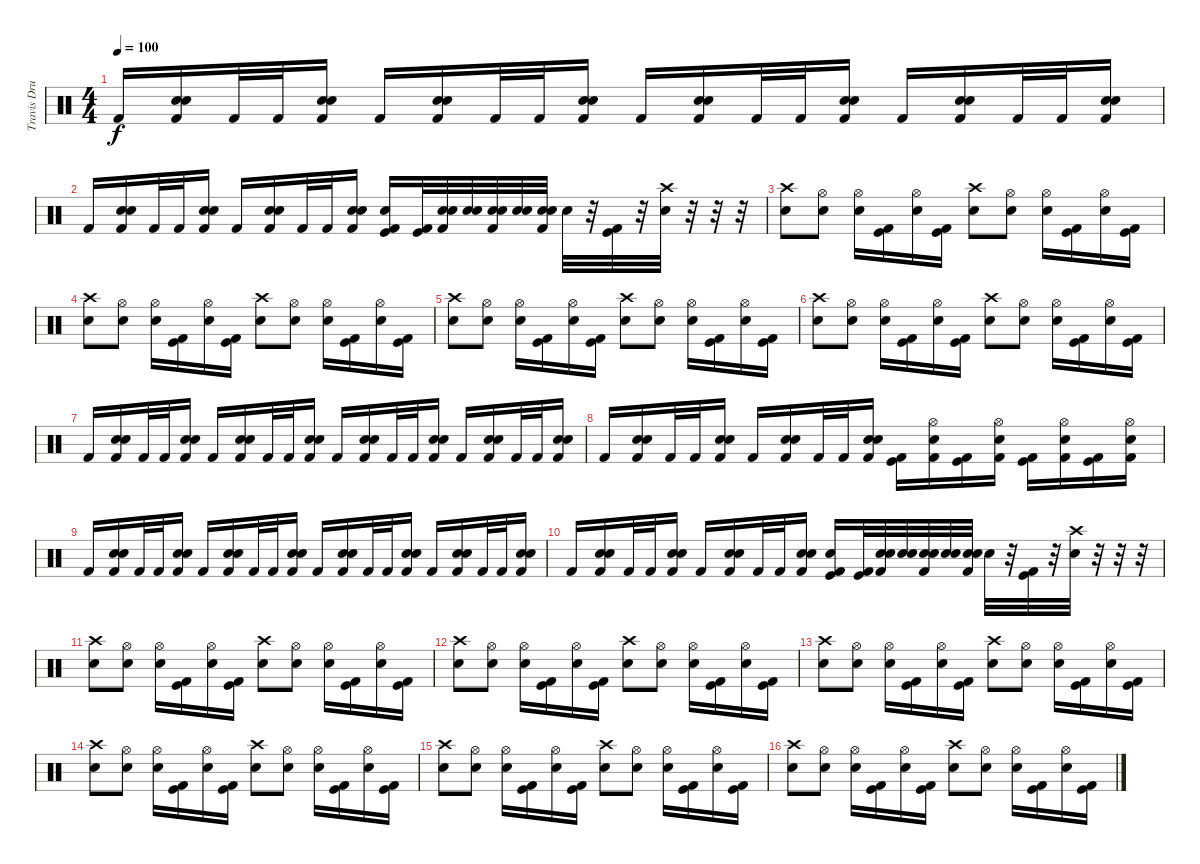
\track ("Travis Drums" "Travis Dru") {instrument percussion}
\staff {score}
\articulation defaults
\ts (4 4)
\tempo 100
\clef neutral
\ks c "Kick (hit) 2".16{dy f}
("Electric Snare (hit)" "Snare (hit) 2" "Kick (hit) 2").16 "Kick (hit) 2".32 "Kick (hit) 2".32 ("Electric Snare (hit)" "Snare (hit) 2" "Kick (hit) 2").16 "Kick (hit) 2".16 ("Electric Snare (hit)" "Snare (hit) 2" "Kick (hit) 2").16 "Kick (hit) 2".32 "Kick (hit) 2".32 ("Electric Snare (hit)" "Snare (hit) 2" "Kick (hit) 2").16 "Kick (hit) 2".16 ("Electric Snare (hit)" "Snare (hit) 2" "Kick (hit) 2").16 "Kick (hit) 2".32 "Kick (hit) 2".32 ("Electric Snare (hit)" "Snare (hit) 2" "Kick (hit) 2").16 "Kick (hit) 2".16 ("Electric Snare (hit)" "Snare (hit) 2" "Kick (hit) 2").16 "Kick (hit) 2".32 "Kick (hit) 2".32 ("Electric Snare (hit)" "Snare (hit) 2" "Kick (hit) 2").16 |
"Kick (hit) 2".16 ("Electric Snare (hit)" "Snare (hit) 2" "Kick (hit) 2").16 "Kick (hit) 2".32 "Kick (hit) 2".32 ("Electric Snare (hit)" "Snare (hit) 2" "Kick (hit) 2").16 "Kick (hit) 2".16 ("Electric Snare (hit)" "Snare (hit) 2" "Kick (hit) 2").16 "Kick (hit) 2".32 "Kick (hit) 2".32 ("Electric Snare (hit)" "Snare (hit) 2" "Kick (hit) 2").16 ("Electric Snare (hit)" "Kick (hit)" "Kick (hit) 2").16 ("Kick (hit)" "Kick (hit) 2").32 ("Snare (hit) 2" "Electric Snare (hit)" "Kick (hit) 2").32 ("Snare (hit) 2" "Electric Snare (hit)").32 ("Snare (hit) 2" "Electric Snare (hit)" "Kick (hit) 2").32 ("Snare (hit) 2" "Electric Snare (hit)").32 ("Snare (hit) 2" "Electric Snare (hit)" "Kick (hit) 2").32 "Electric Snare (hit)".32 r.32 ("Kick (hit) 2" "Kick (hit)").32 r.32 ("Crash high (hit)" "Electric Snare (hit)").32 r.32 r.32 r.32 |
("Crash high (hit)" "Electric Snare (hit)").8 ("Hi-Hat (open)" "Electric Snare (hit)").8 ("Hi-Hat (open)" "Electric Snare (hit)").16 ("Kick (hit)" "Kick (hit) 2").16 ("Hi-Hat (open)" "Electric Snare (hit)").16 ("Kick (hit)" "Kick (hit) 2").16 ("Crash high (hit)" "Electric Snare (hit)").8 ("Hi-Hat (open)" "Electric Snare (hit)").8 ("Hi-Hat (open)" "Electric Snare (hit)").16 ("Kick (hit)" "Kick (hit) 2").16 ("Hi-Hat (open)" "Electric Snare (hit)").16 ("Kick (hit)" "Kick (hit) 2").16 |
("Crash high (hit)" "Electric Snare (hit)").8 ("Hi-Hat (open)" "Electric Snare (hit)").8 ("Hi-Hat (open)" "Electric Snare (hit)").16 ("Kick (hit)" "Kick (hit) 2").16 ("Hi-Hat (open)" "Electric Snare (hit)").16 ("Kick (hit)" "Kick (hit) 2").16 ("Crash high (hit)" "Electric Snare (hit)").8 ("Hi-Hat (open)" "Electric Snare (hit)").8 ("Hi-Hat (open)" "Electric Snare (hit)").16 ("Kick (hit)" "Kick (hit) 2").16 ("Hi-Hat (open)" "Electric Snare (hit)").16 ("Kick (hit)" "Kick (hit) 2").16 |
("Crash high (hit)" "Electric Snare (hit)").8 ("Hi-Hat (open)" "Electric Snare (hit)").8 ("Hi-Hat (open)" "Electric Snare (hit)").16 ("Kick (hit)" "Kick (hit) 2").16 ("Hi-Hat (open)" "Electric Snare (hit)").16 ("Kick (hit)" "Kick (hit) 2").16 ("Crash high (hit)" "Electric Snare (hit)").8 ("Hi-Hat (open)" "Electric Snare (hit)").8 ("Hi-Hat (open)" "Electric Snare (hit)").16 ("Kick (hit)" "Kick (hit) 2").16 ("Hi-Hat (open)" "Electric Snare (hit)").16 ("Kick (hit)" "Kick (hit) 2").16 |
("Crash high (hit)" "Electric Snare (hit)").8 ("Hi-Hat (open)" "Electric Snare (hit)").8 ("Hi-Hat (open)" "Electric Snare (hit)").16 ("Kick (hit)" "Kick (hit) 2").16 ("Hi-Hat (open)" "Electric Snare (hit)").16 ("Kick (hit)" "Kick (hit) 2").16 ("Crash high (hit)" "Electric Snare (hit)").8 ("Hi-Hat (open)" "Electric Snare (hit)").8 ("Hi-Hat (open)" "Electric Snare (hit)").16 ("Kick (hit)" "Kick (hit) 2").16 ("Hi-Hat (open)" "Electric Snare (hit)").16 ("Kick (hit)" "Kick (hit) 2").16 |
"Kick (hit) 2".16 ("Electric Snare (hit)" "Snare (hit) 2" "Kick (hit) 2").16 "Kick (hit) 2".32 "Kick (hit) 2".32 ("Electric Snare (hit)" "Snare (hit) 2" "Kick (hit) 2").16 "Kick (hit) 2".16 ("Electric Snare (hit)" "Snare (hit) 2" "Kick (hit) 2").16 "Kick (hit) 2".32 "Kick (hit) 2".32 ("Electric Snare (hit)" "Snare (hit) 2" "Kick (hit) 2").16 "Kick (hit) 2".16 ("Electric Snare (hit)" "Snare (hit) 2" "Kick (hit) 2").16 "Kick (hit) 2".32 "Kick (hit) 2".32 ("Electric Snare (hit)" "Snare (hit) 2" "Kick (hit) 2").16 "Kick (hit) 2".16 ("Electric Snare (hit)" "Snare (hit) 2" "Kick (hit) 2").16 "Kick (hit) 2".32 "Kick (hit) 2".32 ("Electric Snare (hit)" "Snare (hit) 2" "Kick (hit) 2").16 |
"Kick (hit) 2".16 ("Electric Snare (hit)" "Snare (hit) 2" "Kick (hit) 2").16 "Kick (hit) 2".32 "Kick (hit) 2".32 ("Electric Snare (hit)" "Snare (hit) 2" "Kick (hit) 2").16 "Kick (hit) 2".16 ("Electric Snare (hit)" "Snare (hit) 2" "Kick (hit) 2").16 "Kick (hit) 2".32 "Kick (hit) 2".32 ("Electric Snare (hit)" "Snare (hit) 2" "Kick (hit) 2").16 ("Kick (hit)" "Kick (hit) 2").16 ("Hi-Hat (open)" "Snare (hit) 2" "Kick (hit) 2").16 ("Kick (hit)" "Kick (hit) 2").16 ("Hi-Hat (open)" "Snare (hit) 2" "Kick (hit) 2").16 ("Kick (hit)" "Kick (hit) 2").16 ("Hi-Hat (open)" "Snare (hit) 2" "Kick (hit) 2").16 ("Kick (hit)" "Kick (hit) 2").16 ("Hi-Hat (open)" "Snare (hit) 2" "Kick (hit) 2").16 |
"Kick (hit) 2".16 ("Electric Snare (hit)" "Snare (hit) 2" "Kick (hit) 2").16 "Kick (hit) 2".32 "Kick (hit) 2".32 ("Electric Snare (hit)" "Snare (hit) 2" "Kick (hit) 2").16 "Kick (hit) 2".16 ("Electric Snare (hit)" "Snare (hit) 2" "Kick (hit) 2").16 "Kick (hit) 2".32 "Kick (hit) 2".32 ("Electric Snare (hit)" "Snare (hit) 2" "Kick (hit) 2").16 "Kick (hit) 2".16 ("Electric Snare (hit)" "Snare (hit) 2" "Kick (hit) 2").16 "Kick (hit) 2".32 "Kick (hit) 2".32 ("Electric Snare (hit)" "Snare (hit) 2" "Kick (hit) 2").16 "Kick (hit) 2".16 ("Electric Snare (hit)" "Snare (hit) 2" "Kick (hit) 2").16 "Kick (hit) 2".32 "Kick (hit) 2".32 ("Electric Snare (hit)" "Snare (hit) 2" "Kick (hit) 2").16 |
"Kick (hit) 2".16 ("Electric Snare (hit)" "Snare (hit) 2" "Kick (hit) 2").16 "Kick (hit) 2".32 "Kick (hit) 2".32 ("Electric Snare (hit)" "Snare (hit) 2" "Kick (hit) 2").16 "Kick (hit) 2".16 ("Electric Snare (hit)" "Snare (hit) 2" "Kick (hit) 2").16 "Kick (hit) 2".32 "Kick (hit) 2".32 ("Electric Snare (hit)" "Snare (hit) 2" "Kick (hit) 2").16 ("Electric Snare (hit)" "Kick (hit)" "Kick (hit) 2").16 ("Kick (hit)" "Kick (hit) 2").32 ("Snare (hit) 2" "Electric Snare (hit)" "Kick (hit) 2").32 ("Snare (hit) 2" "Electric Snare (hit)").32 ("Snare (hit) 2" "Electric Snare (hit)" "Kick (hit) 2").32 ("Snare (hit) 2" "Electric Snare (hit)").32 ("Snare (hit) 2" "Electric Snare (hit)" "Kick (hit) 2").32 "Electric Snare (hit)".32 r.32 ("Kick (hit) 2" "Kick (hit)").32 r.32 ("Crash high (hit)" "Electric Snare (hit)").32 r.32 r.32 r.32 |
("Crash high (hit)" "Electric Snare (hit)").8 ("Hi-Hat (open)" "Electric Snare (hit)").8 ("Hi-Hat (open)" "Electric Snare (hit)").16 ("Kick (hit)" "Kick (hit) 2").16 ("Hi-Hat (open)" "Electric Snare (hit)").16 ("Kick (hit)" "Kick (hit) 2").16 ("Crash high (hit)" "Electric Snare (hit)").8 ("Hi-Hat (open)" "Electric Snare (hit)").8 ("Hi-Hat (open)" "Electric Snare (hit)").16 ("Kick (hit)" "Kick (hit) 2").16 ("Hi-Hat (open)" "Electric Snare (hit)").16 ("Kick (hit)" "Kick (hit) 2").16 |
("Crash high (hit)" "Electric Snare (hit)").8 ("Hi-Hat (open)" "Electric Snare (hit)").8 ("Hi-Hat (open)" "Electric Snare (hit)").16 ("Kick (hit)" "Kick (hit) 2").16 ("Hi-Hat (open)" "Electric Snare (hit)").16 ("Kick (hit)" "Kick (hit) 2").16 ("Crash high (hit)" "Electric Snare (hit)").8 ("Hi-Hat (open)" "Electric Snare (hit)").8 ("Hi-Hat (open)" "Electric Snare (hit)").16 ("Kick (hit)" "Kick (hit) 2").16 ("Hi-Hat (open)" "Electric Snare (hit)").16 ("Kick (hit)" "Kick (hit) 2").16 |
("Crash high (hit)" "Electric Snare (hit)").8 ("Hi-Hat (open)" "Electric Snare (hit)").8 ("Hi-Hat (open)" "Electric Snare (hit)").16 ("Kick (hit)" "Kick (hit) 2").16 ("Hi-Hat (open)" "Electric Snare (hit)").16 ("Kick (hit)" "Kick (hit) 2").16 ("Crash high (hit)" "Electric Snare (hit)").8 ("Hi-Hat (open)" "Electric Snare (hit)").8 ("Hi-Hat (open)" "Electric Snare (hit)").16 ("Kick (hit)" "Kick (hit) 2").16 ("Hi-Hat (open)" "Electric Snare (hit)").16 ("Kick (hit)" "Kick (hit) 2").16 |
("Crash high (hit)" "Electric Snare (hit)").8 ("Hi-Hat (open)" "Electric Snare (hit)").8 ("Hi-Hat (open)" "Electric Snare (hit)").16 ("Kick (hit)" "Kick (hit) 2").16 ("Hi-Hat (open)" "Electric Snare (hit)").16 ("Kick (hit)" "Kick (hit) 2").16 ("Crash high (hit)" "Electric Snare (hit)").8 ("Hi-Hat (open)" "Electric Snare (hit)").8 ("Hi-Hat (open)" "Electric Snare (hit)").16 ("Kick (hit)" "Kick (hit) 2").16 ("Hi-Hat (open)" "Electric Snare (hit)").16 ("Kick (hit)" "Kick (hit) 2").16 |
("Crash high (hit)" "Electric Snare (hit)").8 ("Hi-Hat (open)" "Electric Snare (hit)").8 ("Hi-Hat (open)" "Electric Snare (hit)").16 ("Kick (hit)" "Kick (hit) 2").16 ("Hi-Hat (open)" "Electric Snare (hit)").16 ("Kick (hit)" "Kick (hit) 2").16 ("Crash high (hit)" "Electric Snare (hit)").8 ("Hi-Hat (open)" "Electric Snare (hit)").8 ("Hi-Hat (open)" "Electric Snare (hit)").16 ("Kick (hit)" "Kick (hit) 2").16 ("Hi-Hat (open)" "Electric Snare (hit)").16 ("Kick (hit)" "Kick (hit) 2").16 |
("Crash high (hit)" "Electric Snare (hit)").8 ("Hi-Hat (open)" "Electric Snare (hit)").8 ("Hi-Hat (open)" "Electric Snare (hit)").16 ("Kick (hit)" "Kick (hit) 2").16 ("Hi-Hat (open)" "Electric Snare (hit)").16 ("Kick (hit)" "Kick (hit) 2").16 ("Crash high (hit)" "Electric Snare (hit)").8 ("Hi-Hat (open)" "Electric Snare (hit)").8 ("Hi-Hat (open)" "Electric Snare (hit)").16 ("Kick (hit)" "Kick (hit) 2").16 ("Hi-Hat (open)" "Electric Snare (hit)").16 ("Kick (hit)" "Kick (hit) 2").16
